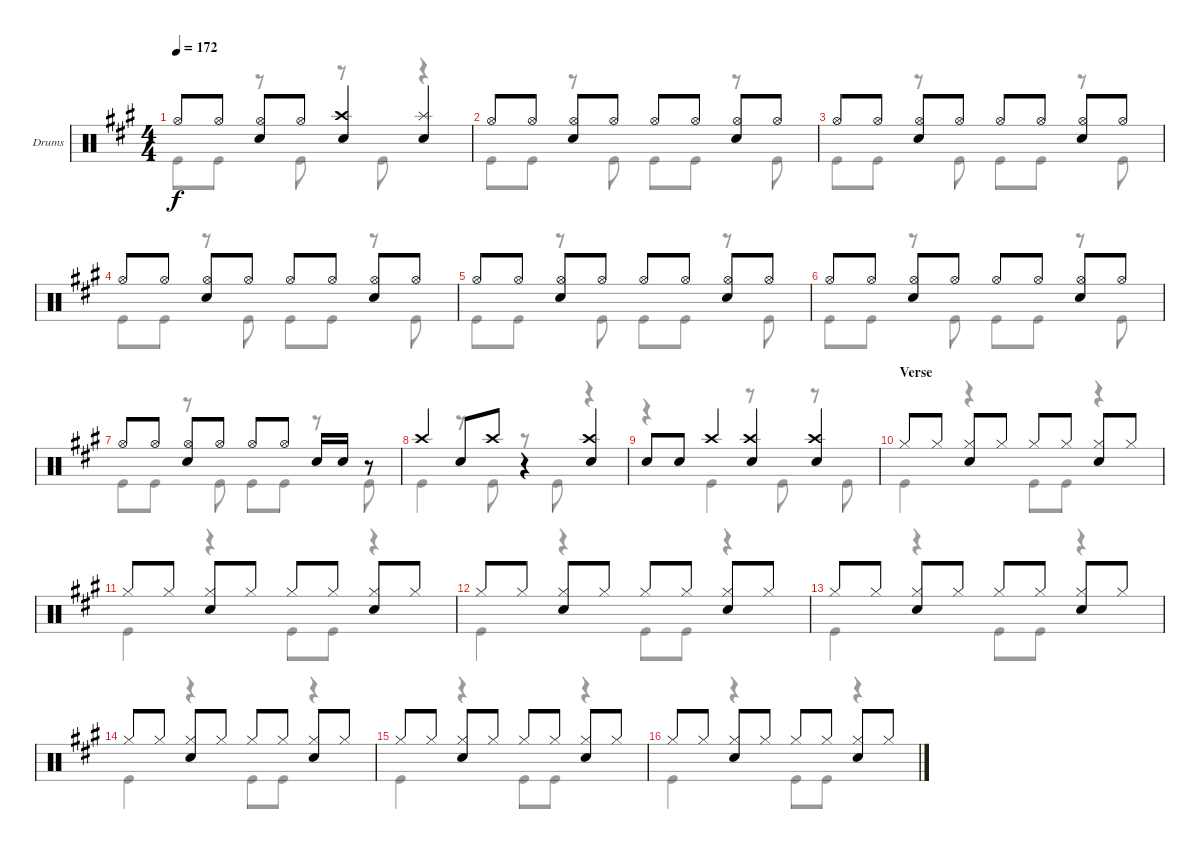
\defaultSystemsLayout 4
\bracketExtendMode groupsimilarinstruments
\firstSystemTrackNameOrientation horizontal
\otherSystemsTrackNameOrientation horizontal
\track ("Taylor Hawkins" "Drums") {instrument percussion}
\staff {score}
\articulation defaults
\voice
\ts (4 4)
\tempo 172
\clef neutral
\scale
0.333333
\ks a "Hi-Hat (open)".8{dy f} "Hi-Hat (open)".8
("Hi-Hat (open)" "Snare (hit) 2").8 "Hi-Hat (open)".8 ("Snare (hit) 2" "Crash high (hit)").4 ("Snare (hit) 2" "Splash (hit)").4 |
\scale
0.333333 "Hi-Hat (open)".8 "Hi-Hat (open)".8 ("Hi-Hat (open)" "Snare (hit) 2").8 "Hi-Hat (open)".8 "Hi-Hat (open)".8 "Hi-Hat (open)".8 ("Hi-Hat (open)" "Snare (hit) 2").8 "Hi-Hat (open)".8 |
\scale
0.333333 "Hi-Hat (open)".8 "Hi-Hat (open)".8 ("Hi-Hat (open)" "Snare (hit) 2").8 "Hi-Hat (open)".8 "Hi-Hat (open)".8 "Hi-Hat (open)".8 ("Hi-Hat (open)" "Snare (hit) 2").8 "Hi-Hat (open)".8 |
\scale
0.333333 "Hi-Hat (open)".8 "Hi-Hat (open)".8 ("Hi-Hat (open)" "Snare (hit) 2").8 "Hi-Hat (open)".8 "Hi-Hat (open)".8 "Hi-Hat (open)".8 ("Hi-Hat (open)" "Snare (hit) 2").8 "Hi-Hat (open)".8 |
\scale
0.333333 "Hi-Hat (open)".8 "Hi-Hat (open)".8 ("Hi-Hat (open)" "Snare (hit) 2").8 "Hi-Hat (open)".8 "Hi-Hat (open)".8 "Hi-Hat (open)".8 ("Snare (hit) 2" "Hi-Hat (open)").8 "Hi-Hat (open)".8 |
\scale
0.333333 "Hi-Hat (open)".8 "Hi-Hat (open)".8 ("Hi-Hat (open)" "Snare (hit) 2").8 "Hi-Hat (open)".8 "Hi-Hat (open)".8 "Hi-Hat (open)".8 ("Hi-Hat (open)" "Snare (hit) 2").8 "Hi-Hat (open)".8 |
\scale
0.333333 "Hi-Hat (open)".8 "Hi-Hat (open)".8 ("Hi-Hat (open)" "Snare (hit) 2").8 "Hi-Hat (open)".8 "Hi-Hat (open)".8 "Hi-Hat (open)".8 "Snare (hit) 2".16 "Snare (hit) 2".16 r.8 |
\scale
0.311475 "Crash high (hit)".4 "Snare (hit) 2".8 "Crash high (hit)".8 r.4 ("Crash high (hit)" "Snare (hit) 2").4 |
\scale
0.311475 "Snare (hit) 2".8 "Snare (hit) 2".8 "Crash high (hit)".4 ("Snare (hit) 2" "Crash high (hit)").4 ("Snare (hit) 2" "Crash high (hit)").4 |
\section ("" "Verse")
\scale
0.377049 "Hi-Hat (closed)".8 "Hi-Hat (closed)".8 ("Hi-Hat (closed)" "Snare (hit) 2").8 "Hi-Hat (closed)".8 "Hi-Hat (closed)".8 "Hi-Hat (closed)".8 ("Hi-Hat (closed)" "Snare (hit) 2").8 "Hi-Hat (closed)".8 |
\scale
0.333333 "Hi-Hat (closed)".8 "Hi-Hat (closed)".8 ("Hi-Hat (closed)" "Snare (hit) 2").8 "Hi-Hat (closed)".8 "Hi-Hat (closed)".8 "Hi-Hat (closed)".8 ("Hi-Hat (closed)" "Snare (hit) 2").8 "Hi-Hat (closed)".8 |
\scale
0.333333 "Hi-Hat (closed)".8 "Hi-Hat (closed)".8 ("Hi-Hat (closed)" "Snare (hit) 2").8 "Hi-Hat (closed)".8 "Hi-Hat (closed)".8 "Hi-Hat (closed)".8 ("Hi-Hat (closed)" "Snare (hit) 2").8 "Hi-Hat (closed)".8 |
\scale
0.333333 "Hi-Hat (closed)".8 "Hi-Hat (closed)".8 ("Hi-Hat (closed)" "Snare (hit) 2").8 "Hi-Hat (closed)".8 "Hi-Hat (closed)".8 "Hi-Hat (closed)".8 ("Hi-Hat (closed)" "Snare (hit) 2").8 "Hi-Hat (closed)".8 |
\scale
0.333333 "Hi-Hat (closed)".8 "Hi-Hat (closed)".8 ("Hi-Hat (closed)" "Snare (hit) 2").8 "Hi-Hat (closed)".8 "Hi-Hat (closed)".8 "Hi-Hat (closed)".8 ("Hi-Hat (closed)" "Snare (hit) 2").8 "Hi-Hat (closed)".8 |
\scale
0.333333 "Hi-Hat (closed)".8 "Hi-Hat (closed)".8 ("Hi-Hat (closed)" "Snare (hit) 2").8 "Hi-Hat (closed)".8 "Hi-Hat (closed)".8 "Hi-Hat (closed)".8 ("Hi-Hat (closed)" "Snare (hit) 2").8 "Hi-Hat (closed)".8 |
\scale
0.333333 "Hi-Hat (closed)".8 "Hi-Hat (closed)".8 ("Hi-Hat (closed)" "Snare (hit) 2").8 "Hi-Hat (closed)".8 "Hi-Hat (closed)".8 "Hi-Hat (closed)".8 ("Hi-Hat (closed)" "Snare (hit) 2").8 "Hi-Hat (closed)".8
\voice
\clef neutral
\ottava regular
\simile none
\scale
0.333333
\ks a "Kick (hit)".8{dy f} "Kick (hit)".8
r.8 "Kick (hit)".8 r.8 "Kick (hit)".8 r.4 |
\scale
0.333333 "Kick (hit)".8 "Kick (hit)".8 r.8 "Kick (hit)".8 "Kick (hit)".8 "Kick (hit)".8 r.8 "Kick (hit)".8 |
\scale
0.333333 "Kick (hit)".8 "Kick (hit)".8 r.8 "Kick (hit)".8 "Kick (hit)".8 "Kick (hit)".8 r.8 "Kick (hit)".8 |
\scale
0.333333 "Kick (hit)".8 "Kick (hit)".8 r.8 "Kick (hit)".8 "Kick (hit)".8 "Kick (hit)".8 r.8 "Kick (hit)".8 |
\scale
0.333333 "Kick (hit)".8 "Kick (hit)".8 r.8 "Kick (hit)".8 "Kick (hit)".8 "Kick (hit)".8 r.8 "Kick (hit)".8 |
\scale
0.333333 "Kick (hit)".8 "Kick (hit)".8 r.8 "Kick (hit)".8 "Kick (hit)".8 "Kick (hit)".8 r.8 "Kick (hit)".8 |
\scale
0.333333 "Kick (hit)".8 "Kick (hit)".8 r.8 "Kick (hit)".8 "Kick (hit)".8 "Kick (hit)".8 r.8 "Kick (hit)".8 |
\scale
0.311475 "Kick (hit)".4 r.8 "Kick (hit)".8 r.8 "Kick (hit)".8 r.4 |
\scale
0.311475 r.4 "Kick (hit)".4 r.8 "Kick (hit)".8 r.8 "Kick (hit)".8 |
\scale
0.377049 "Kick (hit)".4 r.4 "Kick (hit)".8 "Kick (hit)".8 r.4 |
\scale
0.333333 "Kick (hit)".4 r.4 "Kick (hit)".8 "Kick (hit)".8 r.4 |
\scale
0.333333 "Kick (hit)".4 r.4 "Kick (hit)".8 "Kick (hit)".8 r.4 |
\scale
0.333333 "Kick (hit)".4 r.4 "Kick (hit)".8 "Kick (hit)".8 r.4 |
\scale
0.333333 "Kick (hit)".4 r.4 "Kick (hit)".8 "Kick (hit)".8 r.4 |
\scale
0.333333 "Kick (hit)".4 r.4 "Kick (hit)".8 "Kick (hit)".8 r.4 |
\scale
0.333333 "Kick (hit)".4 r.4 "Kick (hit)".8 "Kick (hit)".8 r.4
